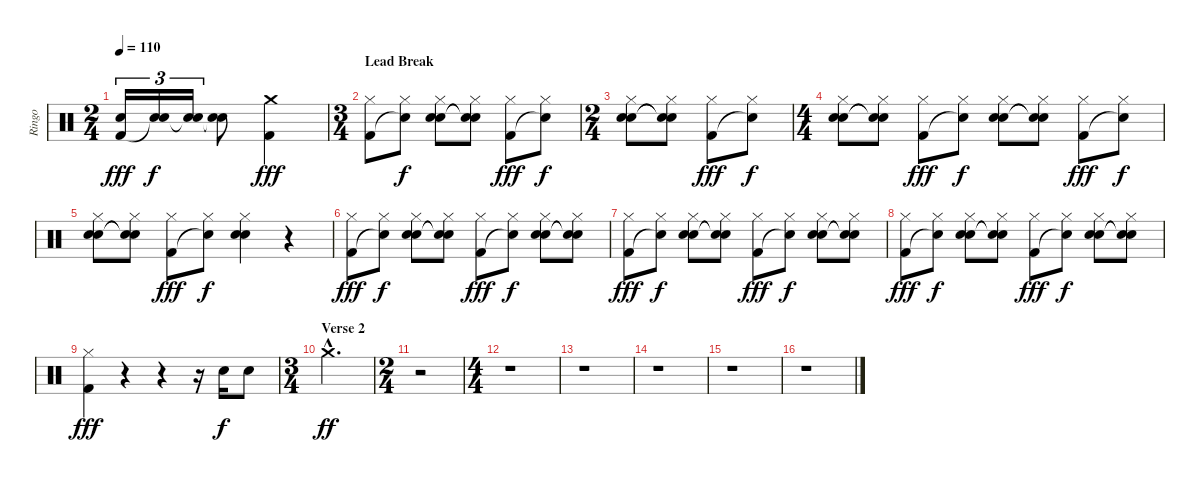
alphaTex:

\track ("Ringo" "Ringo") {instrument percussion}
\staff {score}
\articulation defaults
\ts (2 4)
\tempo 110
\clef neutral
\ks c
("Snare (hit) 2" "Kick (hit) 2").16{tu (3 2) dy fff} ("Snare (hit) 2" "Snare (hit)"{t}).16{tu (3 2) dy f} ("Snare (hit) 2" "Snare (hit)"{t}).16{tu (3 2)} ("Snare (hit) 2" "Snare (hit)"{t}).8 ("Crash medium (hit)" "Kick (hit) 2").4{dy fff} |
\ts (3 4)
\section ("" "Lead Break")
("Hi-Hat (closed)" "Kick (hit) 2").8 ("Hi-Hat (closed)" "Snare (hit)"{t}).8{dy f} ("Hand Clap (hit)" "Hi-Hat (closed)" "Snare (hit) 2").8 ("Snare (hit)"{t} "Hi-Hat (closed)" "Snare (hit)"{t}).8 ("Hi-Hat (closed)" "Kick (hit) 2").8{dy fff} ("Hi-Hat (closed)" "Snare (hit)"{t}).8{dy f} |
\ts (2 4)
("Hand Clap (hit)" "Hi-Hat (closed)" "Snare (hit) 2").8 ("Snare (hit)"{t} "Hi-Hat (closed)" "Snare (hit)"{t}).8 ("Hi-Hat (closed)" "Kick (hit) 2").8{dy fff} ("Hi-Hat (closed)" "Snare (hit)"{t}).8{dy f} |
\ts (4 4)
("Hand Clap (hit)" "Hi-Hat (closed)" "Snare (hit) 2").8 ("Snare (hit)"{t} "Hi-Hat (closed)" "Snare (hit)"{t}).8 ("Hi-Hat (closed)" "Kick (hit) 2").8{dy fff} ("Hi-Hat (closed)" "Snare (hit)"{t}).8{dy f} ("Hand Clap (hit)" "Hi-Hat (closed)" "Snare (hit) 2").8 ("Snare (hit)"{t} "Hi-Hat (closed)" "Snare (hit)"{t}).8 ("Hi-Hat (closed)" "Kick (hit) 2").8{dy fff} ("Hi-Hat (closed)" "Snare (hit)"{t}).8{dy f} |
("Hand Clap (hit)" "Hi-Hat (closed)" "Snare (hit) 2").8 ("Snare (hit)"{t} "Hi-Hat (closed)" "Snare (hit)"{t}).8 ("Hi-Hat (closed)" "Kick (hit) 2").8{dy fff} ("Hi-Hat (closed)" "Snare (hit)"{t}).8{dy f} ("Hand Clap (hit)" "Hi-Hat (closed)" "Snare (hit) 2").4 r.4 |
("Hi-Hat (closed)" "Kick (hit) 2").8{dy fff} ("Hi-Hat (closed)" "Snare (hit)"{t}).8{dy f} ("Hand Clap (hit)" "Hi-Hat (closed)" "Snare (hit) 2").8 ("Snare (hit)"{t} "Hi-Hat (closed)" "Snare (hit)"{t}).8 ("Hi-Hat (closed)" "Kick (hit) 2").8{dy fff} ("Hi-Hat (closed)" "Snare (hit)"{t}).8{dy f} ("Hand Clap (hit)" "Hi-Hat (closed)" "Snare (hit) 2").8 ("Snare (hit)"{t} "Hi-Hat (closed)" "Snare (hit)"{t}).8 |
("Hi-Hat (closed)" "Kick (hit) 2").8{dy fff} ("Hi-Hat (closed)" "Snare (hit)"{t}).8{dy f} ("Hand Clap (hit)" "Hi-Hat (closed)" "Snare (hit) 2").8 ("Snare (hit)"{t} "Hi-Hat (closed)" "Snare (hit)"{t}).8 ("Hi-Hat (closed)" "Kick (hit) 2").8{dy fff} ("Hi-Hat (closed)" "Snare (hit)"{t}).8{dy f} ("Hand Clap (hit)" "Hi-Hat (closed)" "Snare (hit) 2").8 ("Snare (hit)"{t} "Hi-Hat (closed)" "Snare (hit)"{t}).8 |
("Hi-Hat (closed)" "Kick (hit) 2").8{dy fff} ("Hi-Hat (closed)" "Snare (hit)"{t}).8{dy f} ("Hand Clap (hit)" "Hi-Hat (closed)" "Snare (hit) 2").8 ("Snare (hit)"{t} "Hi-Hat (closed)" "Snare (hit)"{t}).8 ("Hi-Hat (closed)" "Kick (hit) 2").8{dy fff} ("Hi-Hat (closed)" "Snare (hit)"{t}).8{dy f} ("Hand Clap (hit)" "Hi-Hat (closed)" "Snare (hit) 2").8 ("Snare (hit)"{t} "Hi-Hat (closed)" "Snare (hit)"{t}).8 |
("Hi-Hat (closed)" "Kick (hit) 2").4{dy fff} r.4 r.4 r.16 "Snare (hit) 2".16{dy f} "Snare (hit) 2".8 |
\ts (3 4)
\section ("" "Verse 2")
"Crash medium (hit)"{hac}.2{d dy ff} |
\ts (2 4)
r.2 |
\ts (4 4)
r.1 |
r.1 |
r.1 |
r.1 |
r.1
